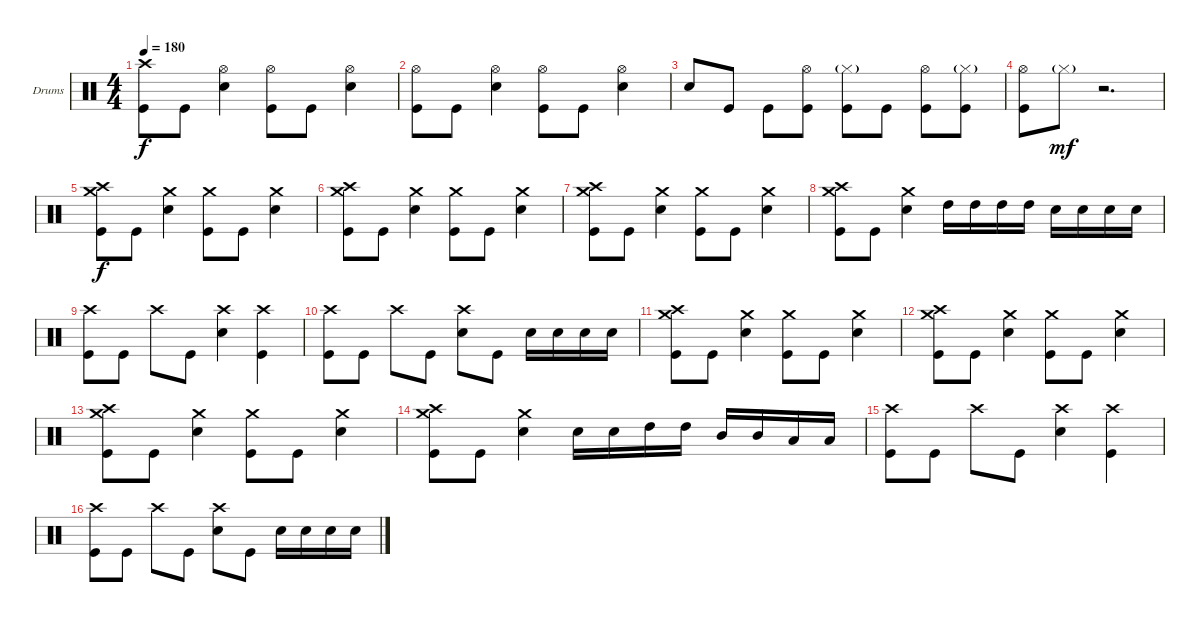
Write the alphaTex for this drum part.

\defaultSystemsLayout 4
\bracketExtendMode groupsimilarinstruments
\firstSystemTrackNameOrientation horizontal
\otherSystemsTrackNameOrientation horizontal
\track ("Барабаны" "Drums") {instrument percussion}
\staff {score}
\articulation defaults
\ts (4 4)
\tempo 180
\clef neutral
\scale
0.333333
\ks c
("Crash high (hit)" "Kick (hit)").8{dy f} "Kick (hit)".8 ("Hi-Hat (open)" "Snare (hit) 2").4 ("Hi-Hat (open)" "Kick (hit)").8 "Kick (hit)".8 ("Hi-Hat (open)" "Snare (hit) 2").4 |
\scale
0.333333 ("Hi-Hat (open)" "Kick (hit)").8 "Kick (hit)".8 ("Hi-Hat (open)" "Snare (hit) 2").4 ("Hi-Hat (open)" "Kick (hit)").8 "Kick (hit)".8 ("Hi-Hat (open)" "Snare (hit) 2").4 |
\scale
0.333333 "Snare (hit) 2".8 "Kick (hit)".8 "Kick (hit)".8 ("Hi-Hat (open)" "Kick (hit)").8 ("Hi-Hat (closed)"{g} "Kick (hit)").8 "Kick (hit)".8 ("Hi-Hat (open)" "Kick (hit)").8 ("Hi-Hat (closed)"{g} "Kick (hit)").8 |
\scale
0.333333 ("Hi-Hat (open)" "Kick (hit)").8 "Hi-Hat (closed)"{g}.8{dy mf} r.2{d} |
\scale
0.333333 ("Crash high (hit)" "Crash medium (hit)" "Kick (hit)").8{dy f} "Kick (hit)".8 ("Crash medium (hit)" "Snare (hit) 2").4 ("Crash medium (hit)" "Kick (hit)").8 "Kick (hit)".8 ("Crash medium (hit)" "Snare (hit) 2").4 |
\scale
0.333333 ("Crash high (hit)" "Crash medium (hit)" "Kick (hit)").8 "Kick (hit)".8 ("Crash medium (hit)" "Snare (hit) 2").4 ("Crash medium (hit)" "Kick (hit)").8 "Kick (hit)".8 ("Crash medium (hit)" "Snare (hit) 2").4 |
\scale
0.333333 ("Crash high (hit)" "Crash medium (hit)" "Kick (hit)").8 "Kick (hit)".8 ("Crash medium (hit)" "Snare (hit) 2").4 ("Crash medium (hit)" "Kick (hit)").8 "Kick (hit)".8 ("Crash medium (hit)" "Snare (hit) 2").4 |
\scale
0.333333 ("Crash high (hit)" "Crash medium (hit)" "Kick (hit)").8 "Kick (hit)".8 ("Crash medium (hit)" "Snare (hit) 2").4 "High Tom (hit)".16 "High Tom (hit)".16 "High Tom (hit)".16 "High Tom (hit)".16 "Snare (hit) 2".16 "Snare (hit) 2".16 "Snare (hit) 2".16 "Snare (hit) 2".16 |
\scale
0.333333 ("Crash high (hit)" "Kick (hit)").8 "Kick (hit)".8 "Crash high (hit)".8 "Kick (hit)".8 ("Crash high (hit)" "Snare (hit) 2").4 ("Crash high (hit)" "Kick (hit)").4 |
\scale
0.333333 ("Crash high (hit)" "Kick (hit)").8 "Kick (hit)".8 "Crash high (hit)".8 "Kick (hit)".8 ("Crash high (hit)" "Snare (hit) 2").8 "Kick (hit)".8 "Snare (hit) 2".16 "Snare (hit) 2".16 "Snare (hit) 2".16 "Snare (hit) 2".16 |
\scale
0.333333 ("Crash high (hit)" "Crash medium (hit)" "Kick (hit)").8 "Kick (hit)".8 ("Crash medium (hit)" "Snare (hit) 2").4 ("Crash medium (hit)" "Kick (hit)").8 "Kick (hit)".8 ("Crash medium (hit)" "Snare (hit) 2").4 |
\scale
0.333333 ("Crash high (hit)" "Crash medium (hit)" "Kick (hit)").8 "Kick (hit)".8 ("Crash medium (hit)" "Snare (hit) 2").4 ("Crash medium (hit)" "Kick (hit)").8 "Kick (hit)".8 ("Crash medium (hit)" "Snare (hit) 2").4 |
\scale
0.333333 ("Crash high (hit)" "Crash medium (hit)" "Kick (hit)").8 "Kick (hit)".8 ("Crash medium (hit)" "Snare (hit) 2").4 ("Crash medium (hit)" "Kick (hit)").8 "Kick (hit)".8 ("Crash medium (hit)" "Snare (hit) 2").4 |
\scale
0.333333 ("Crash high (hit)" "Crash medium (hit)" "Kick (hit)").8 "Kick (hit)".8 ("Crash medium (hit)" "Snare (hit) 2").4 "Snare (hit) 2".16 "Snare (hit) 2".16 "High Tom (hit)".16 "High Tom (hit)".16 "Mid Tom (hit)".16 "Mid Tom (hit)".16 "Low Tom (hit)".16 "Low Tom (hit)".16 |
\scale
0.333333 ("Crash high (hit)" "Kick (hit)").8 "Kick (hit)".8 "Crash high (hit)".8 "Kick (hit)".8 ("Crash high (hit)" "Snare (hit) 2").4 ("Crash high (hit)" "Kick (hit)").4 |
\scale
0.333333 ("Crash high (hit)" "Kick (hit)").8 "Kick (hit)".8 "Crash high (hit)".8 "Kick (hit)".8 ("Crash high (hit)" "Snare (hit) 2").8 "Kick (hit)".8 "Snare (hit) 2".16 "Snare (hit) 2".16 "Snare (hit) 2".16 "Snare (hit) 2".16
